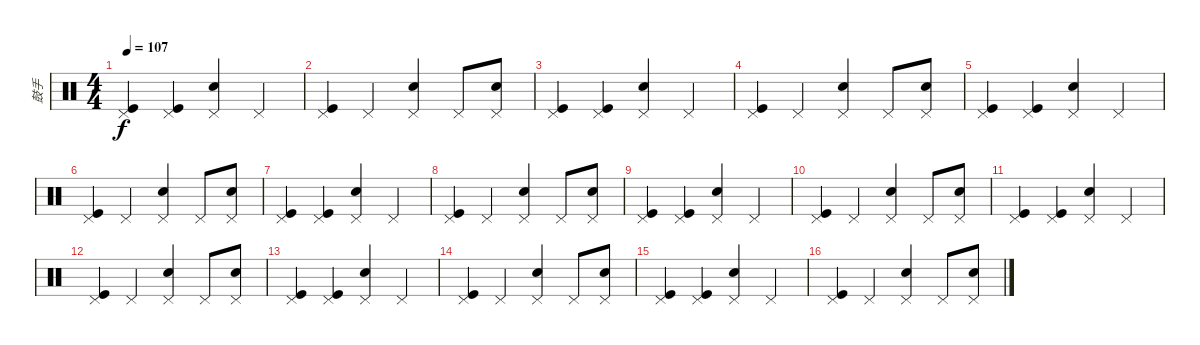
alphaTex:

\track ("鼓手" "鼓手") {instrument percussion}
\staff {score}
\articulation defaults
\ts (4 4)
\tempo 107
\clef neutral
\ks c
("Pedal Hi-Hat (hit)" "Kick (hit)").4{dy f} ("Pedal Hi-Hat (hit)" "Kick (hit)").4 ("Pedal Hi-Hat (hit)" "Snare (hit) 2").4 "Pedal Hi-Hat (hit)".4 |
("Pedal Hi-Hat (hit)" "Kick (hit)").4 "Pedal Hi-Hat (hit)".4 ("Pedal Hi-Hat (hit)" "Snare (hit) 2").4 "Pedal Hi-Hat (hit)".8 ("Pedal Hi-Hat (hit)" "Snare (hit) 2").8 |
("Pedal Hi-Hat (hit)" "Kick (hit)").4 ("Pedal Hi-Hat (hit)" "Kick (hit)").4 ("Pedal Hi-Hat (hit)" "Snare (hit) 2").4 "Pedal Hi-Hat (hit)".4 |
("Pedal Hi-Hat (hit)" "Kick (hit)").4 "Pedal Hi-Hat (hit)".4 ("Pedal Hi-Hat (hit)" "Snare (hit) 2").4 "Pedal Hi-Hat (hit)".8 ("Pedal Hi-Hat (hit)" "Snare (hit) 2").8 |
("Pedal Hi-Hat (hit)" "Kick (hit)").4 ("Pedal Hi-Hat (hit)" "Kick (hit)").4 ("Pedal Hi-Hat (hit)" "Snare (hit) 2").4 "Pedal Hi-Hat (hit)".4 |
("Pedal Hi-Hat (hit)" "Kick (hit)").4 "Pedal Hi-Hat (hit)".4 ("Pedal Hi-Hat (hit)" "Snare (hit) 2").4 "Pedal Hi-Hat (hit)".8 ("Pedal Hi-Hat (hit)" "Snare (hit) 2").8 |
("Pedal Hi-Hat (hit)" "Kick (hit)").4 ("Pedal Hi-Hat (hit)" "Kick (hit)").4 ("Pedal Hi-Hat (hit)" "Snare (hit) 2").4 "Pedal Hi-Hat (hit)".4 |
("Pedal Hi-Hat (hit)" "Kick (hit)").4 "Pedal Hi-Hat (hit)".4 ("Pedal Hi-Hat (hit)" "Snare (hit) 2").4 "Pedal Hi-Hat (hit)".8 ("Pedal Hi-Hat (hit)" "Snare (hit) 2").8 |
("Pedal Hi-Hat (hit)" "Kick (hit)").4 ("Pedal Hi-Hat (hit)" "Kick (hit)").4 ("Pedal Hi-Hat (hit)" "Snare (hit) 2").4 "Pedal Hi-Hat (hit)".4 |
("Pedal Hi-Hat (hit)" "Kick (hit)").4 "Pedal Hi-Hat (hit)".4 ("Pedal Hi-Hat (hit)" "Snare (hit) 2").4 "Pedal Hi-Hat (hit)".8 ("Pedal Hi-Hat (hit)" "Snare (hit) 2").8 |
("Pedal Hi-Hat (hit)" "Kick (hit)").4 ("Pedal Hi-Hat (hit)" "Kick (hit)").4 ("Pedal Hi-Hat (hit)" "Snare (hit) 2").4 "Pedal Hi-Hat (hit)".4 |
("Pedal Hi-Hat (hit)" "Kick (hit)").4 "Pedal Hi-Hat (hit)".4 ("Pedal Hi-Hat (hit)" "Snare (hit) 2").4 "Pedal Hi-Hat (hit)".8 ("Pedal Hi-Hat (hit)" "Snare (hit) 2").8 |
("Pedal Hi-Hat (hit)" "Kick (hit)").4 ("Pedal Hi-Hat (hit)" "Kick (hit)").4 ("Pedal Hi-Hat (hit)" "Snare (hit) 2").4 "Pedal Hi-Hat (hit)".4 |
("Pedal Hi-Hat (hit)" "Kick (hit)").4 "Pedal Hi-Hat (hit)".4 ("Pedal Hi-Hat (hit)" "Snare (hit) 2").4 "Pedal Hi-Hat (hit)".8 ("Pedal Hi-Hat (hit)" "Snare (hit) 2").8 |
("Pedal Hi-Hat (hit)" "Kick (hit)").4 ("Pedal Hi-Hat (hit)" "Kick (hit)").4 ("Pedal Hi-Hat (hit)" "Snare (hit) 2").4 "Pedal Hi-Hat (hit)".4 |
("Pedal Hi-Hat (hit)" "Kick (hit)").4 "Pedal Hi-Hat (hit)".4 ("Pedal Hi-Hat (hit)" "Snare (hit) 2").4 "Pedal Hi-Hat (hit)".8 ("Pedal Hi-Hat (hit)" "Snare (hit) 2").8
